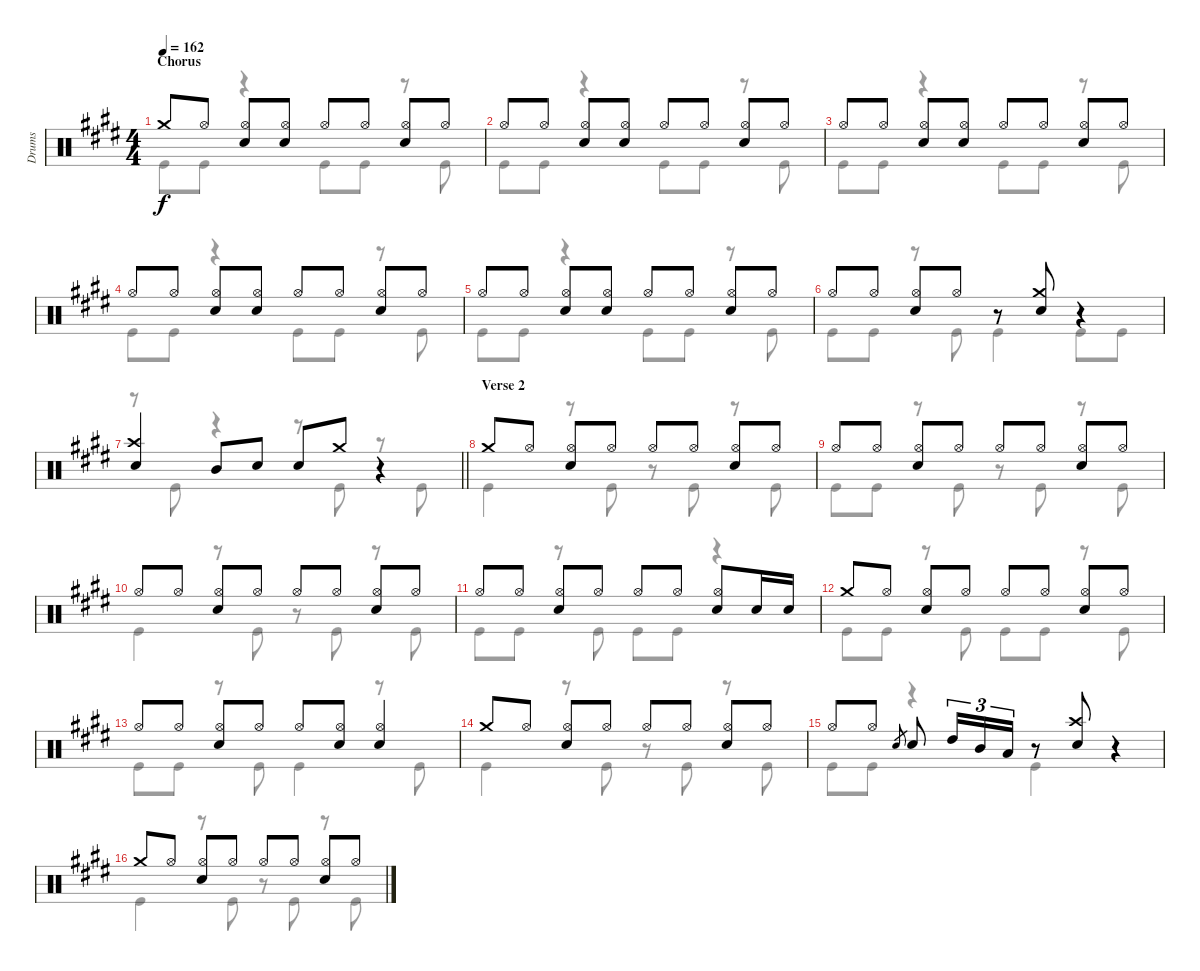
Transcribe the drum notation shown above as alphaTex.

\track ("Drums" "Drums") {instrument percussion}
\staff {score}
\articulation defaults
\voice
\ts (4 4)
\section ("" "Chorus")
\tempo 162
\clef neutral
\ks e "Crash medium (hit)".8{dy f} "Hi-Hat (open)".8
("Hi-Hat (open)" "Electric Snare (hit)").8 ("Hi-Hat (open)" "Electric Snare (hit)").8 "Hi-Hat (open)".8 "Hi-Hat (open)".8 ("Hi-Hat (open)" "Electric Snare (hit)").8 "Hi-Hat (open)".8 |
"Hi-Hat (open)".8 "Hi-Hat (open)".8 ("Hi-Hat (open)" "Electric Snare (hit)").8 ("Hi-Hat (open)" "Electric Snare (hit)").8 "Hi-Hat (open)".8 "Hi-Hat (open)".8 ("Hi-Hat (open)" "Electric Snare (hit)").8 "Hi-Hat (open)".8 |
"Hi-Hat (open)".8 "Hi-Hat (open)".8 ("Hi-Hat (open)" "Electric Snare (hit)").8 ("Hi-Hat (open)" "Electric Snare (hit)").8 "Hi-Hat (open)".8 "Hi-Hat (open)".8 ("Hi-Hat (open)" "Electric Snare (hit)").8 "Hi-Hat (open)".8 |
"Hi-Hat (open)".8 "Hi-Hat (open)".8 ("Hi-Hat (open)" "Electric Snare (hit)").8 ("Hi-Hat (open)" "Electric Snare (hit)").8 "Hi-Hat (open)".8 "Hi-Hat (open)".8 ("Hi-Hat (open)" "Electric Snare (hit)").8 "Hi-Hat (open)".8 |
"Hi-Hat (open)".8 "Hi-Hat (open)".8 ("Hi-Hat (open)" "Electric Snare (hit)").8 ("Hi-Hat (open)" "Electric Snare (hit)").8 "Hi-Hat (open)".8 "Hi-Hat (open)".8 ("Hi-Hat (open)" "Electric Snare (hit)").8 "Hi-Hat (open)".8 |
"Hi-Hat (open)".8 "Hi-Hat (open)".8 ("Hi-Hat (open)" "Electric Snare (hit)").8 "Hi-Hat (open)".8 r.8 ("Crash medium (hit)" "Electric Snare (hit)").8 r.4 |
\barLineRight lightlight
("Crash high (hit)" "Electric Snare (hit)").4 "Mid Tom (hit)".8 "Electric Snare (hit)".8 "Electric Snare (hit)".8 "Crash medium (hit)".8 r.4 |
\section ("" "Verse 2")
"Crash medium (hit)".8 "Hi-Hat (open)".8 ("Hi-Hat (open)" "Electric Snare (hit)").8 "Hi-Hat (open)".8 "Hi-Hat (open)".8 "Hi-Hat (open)".8 ("Hi-Hat (open)" "Electric Snare (hit)").8 "Hi-Hat (open)".8 |
"Hi-Hat (open)".8 "Hi-Hat (open)".8 ("Hi-Hat (open)" "Electric Snare (hit)").8 "Hi-Hat (open)".8 "Hi-Hat (open)".8 "Hi-Hat (open)".8 ("Hi-Hat (open)" "Electric Snare (hit)").8 "Hi-Hat (open)".8 |
"Hi-Hat (open)".8 "Hi-Hat (open)".8 ("Hi-Hat (open)" "Electric Snare (hit)").8 "Hi-Hat (open)".8 "Hi-Hat (open)".8 "Hi-Hat (open)".8 ("Hi-Hat (open)" "Electric Snare (hit)").8 "Hi-Hat (open)".8 |
"Hi-Hat (open)".8 "Hi-Hat (open)".8 ("Hi-Hat (open)" "Electric Snare (hit)").8 "Hi-Hat (open)".8 "Hi-Hat (open)".8 "Hi-Hat (open)".8 ("Hi-Hat (open)" "Electric Snare (hit)").8 "Electric Snare (hit)".16 "Electric Snare (hit)".16 |
"Crash medium (hit)".8 "Hi-Hat (open)".8 ("Hi-Hat (open)" "Electric Snare (hit)").8 "Hi-Hat (open)".8 "Hi-Hat (open)".8 "Hi-Hat (open)".8 ("Hi-Hat (open)" "Electric Snare (hit)").8 "Hi-Hat (open)".8 |
"Hi-Hat (open)".8 "Hi-Hat (open)".8 ("Hi-Hat (open)" "Electric Snare (hit)").8 "Hi-Hat (open)".8 "Hi-Hat (open)".8 ("Hi-Hat (open)" "Electric Snare (hit)").8 ("Hi-Hat (open)" "Electric Snare (hit)").4 |
"Crash medium (hit)".8 "Hi-Hat (open)".8 ("Hi-Hat (open)" "Electric Snare (hit)").8 "Hi-Hat (open)".8 "Hi-Hat (open)".8 "Hi-Hat (open)".8 ("Hi-Hat (open)" "Electric Snare (hit)").8 "Hi-Hat (open)".8 |
"Hi-Hat (open)".8 "Hi-Hat (open)".8 "Electric Snare (hit)".8{gr} "Electric Snare (hit)".8 "High Tom (hit)".16{tu (3 2)} "Mid Tom (hit)".16{tu (3 2)} "Low Tom (hit)".16{tu (3 2)} r.8 ("Crash high (hit)" "Electric Snare (hit)").8 r.4 |
"Crash medium (hit)".8 "Hi-Hat (open)".8 ("Hi-Hat (open)" "Electric Snare (hit)").8 "Hi-Hat (open)".8 "Hi-Hat (open)".8 "Hi-Hat (open)".8 ("Hi-Hat (open)" "Electric Snare (hit)").8 "Hi-Hat (open)".8
\voice
\clef neutral
\ottava regular
\simile none
\ks e "Kick (hit)".8{dy f} "Kick (hit)".8
r.4 "Kick (hit)".8 "Kick (hit)".8 r.8 "Kick (hit)".8 |
"Kick (hit)".8 "Kick (hit)".8 r.4 "Kick (hit)".8 "Kick (hit)".8 r.8 "Kick (hit)".8 |
"Kick (hit)".8 "Kick (hit)".8 r.4 "Kick (hit)".8 "Kick (hit)".8 r.8 "Kick (hit)".8 |
"Kick (hit)".8 "Kick (hit)".8 r.4 "Kick (hit)".8 "Kick (hit)".8 r.8 "Kick (hit)".8 |
"Kick (hit)".8 "Kick (hit)".8 r.4 "Kick (hit)".8 "Kick (hit)".8 r.8 "Kick (hit)".8 |
"Kick (hit)".8 "Kick (hit)".8 r.8 "Kick (hit)".8 "Kick (hit)".4 "Kick (hit)".8 "Kick (hit)".8 |
\barLineRight lightlight
r.8 "Kick (hit)".8 r.4 r.8 "Kick (hit)".8 r.8 "Kick (hit)".8 |
"Kick (hit)".4 r.8 "Kick (hit)".8 r.8 "Kick (hit)".8 r.8 "Kick (hit)".8 |
"Kick (hit)".8 "Kick (hit)".8 r.8 "Kick (hit)".8 r.8 "Kick (hit)".8 r.8 "Kick (hit)".8 |
"Kick (hit)".4 r.8 "Kick (hit)".8 r.8 "Kick (hit)".8 r.8 "Kick (hit)".8 |
"Kick (hit)".8 "Kick (hit)".8 r.8 "Kick (hit)".8 "Kick (hit)".8 "Kick (hit)".8 r.4 |
"Kick (hit)".8 "Kick (hit)".8 r.8 "Kick (hit)".8 "Kick (hit)".8 "Kick (hit)".8 r.8 "Kick (hit)".8 |
"Kick (hit)".8 "Kick (hit)".8 r.8 "Kick (hit)".8 "Kick (hit)".4 r.8 "Kick (hit)".8 |
"Kick (hit)".4 r.8 "Kick (hit)".8 r.8 "Kick (hit)".8 r.8 "Kick (hit)".8 |
"Kick (hit)".8 "Kick (hit)".8 r.4 "Kick (hit)".4 r.4 |
"Kick (hit)".4 r.8 "Kick (hit)".8 r.8 "Kick (hit)".8 r.8 "Kick (hit)".8
